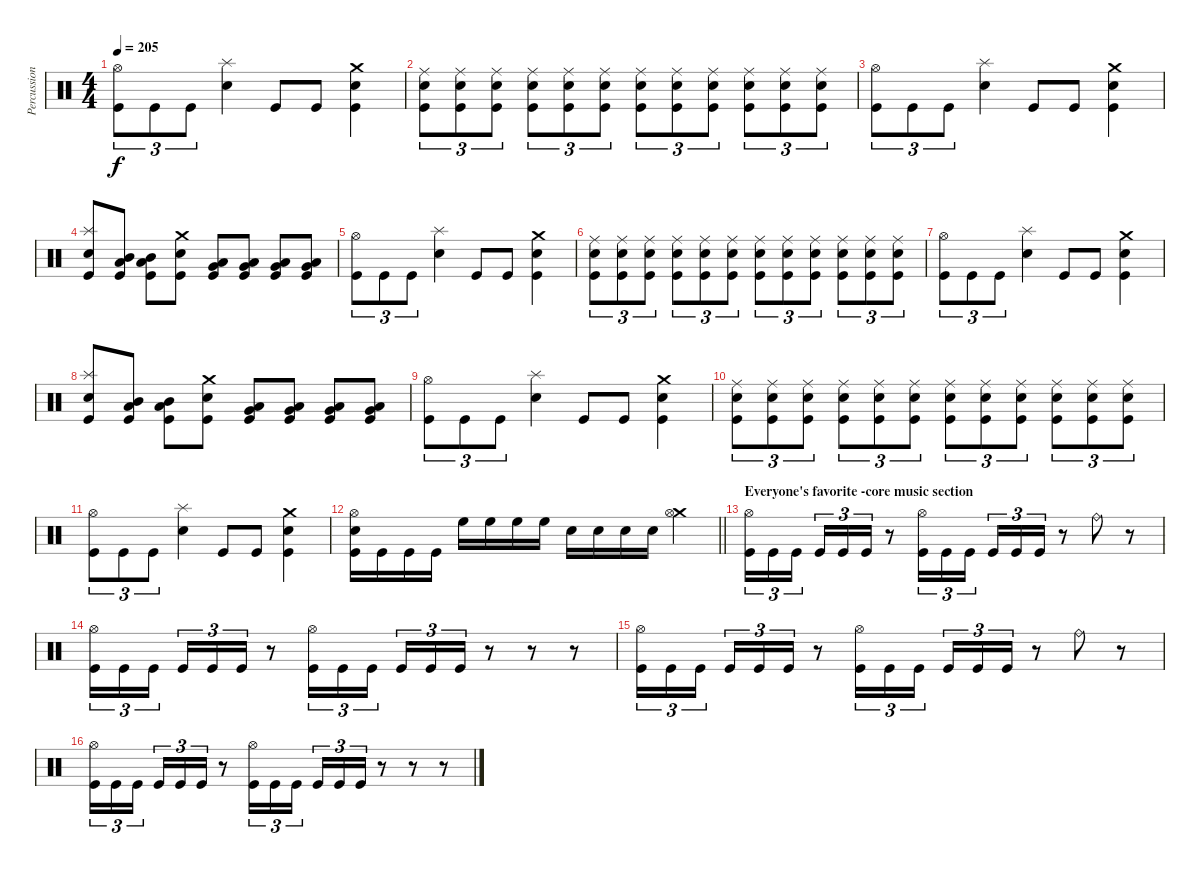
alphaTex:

\track ("Percussion" "Percussion") {instrument percussion}
\staff {score}
\articulation defaults
\ts (4 4)
\tempo 205
\clef neutral
\ks c
("Hi-Hat (open)" "Kick (hit)").8{tu (3 2) dy f} "Kick (hit)".8{tu (3 2)} "Kick (hit)".8{tu (3 2)} ("Splash (hit)" "Electric Snare (hit)").4 "Kick (hit)".8 "Kick (hit)".8 ("Crash medium (hit)" "Electric Snare (hit)" "Kick (hit)").4 |
("Ride (middle)" "Electric Snare (hit)" "Kick (hit)").8{tu (3 2)} ("Ride (middle)" "Electric Snare (hit)" "Kick (hit)").8{tu (3 2)} ("Ride (middle)" "Electric Snare (hit)" "Kick (hit)").8{tu (3 2)} ("Ride (middle)" "Electric Snare (hit)" "Kick (hit)").8{tu (3 2)} ("Ride (middle)" "Electric Snare (hit)" "Kick (hit)").8{tu (3 2)} ("Ride (middle)" "Electric Snare (hit)" "Kick (hit)").8{tu (3 2)} ("Ride (middle)" "Electric Snare (hit)" "Kick (hit)").8{tu (3 2)} ("Ride (middle)" "Electric Snare (hit)" "Kick (hit)").8{tu (3 2)} ("Ride (middle)" "Electric Snare (hit)" "Kick (hit)").8{tu (3 2)} ("Ride (middle)" "Electric Snare (hit)" "Kick (hit)").8{tu (3 2)} ("Ride (middle)" "Electric Snare (hit)" "Kick (hit)").8{tu (3 2)} ("Ride (middle)" "Electric Snare (hit)" "Kick (hit)").8{tu (3 2)} |
("Hi-Hat (open)" "Kick (hit)").8{tu (3 2)} "Kick (hit)".8{tu (3 2)} "Kick (hit)".8{tu (3 2)} ("Splash (hit)" "Electric Snare (hit)").4 "Kick (hit)".8 "Kick (hit)".8 ("Crash medium (hit)" "Electric Snare (hit)" "Kick (hit)").4 |
("Splash (hit)" "Electric Snare (hit)" "Kick (hit)").8 ("Low Tom (hit)" "Mid Tom (hit)" "Kick (hit)").8 ("Low Tom (hit)" "Mid Tom (hit)" "Kick (hit)").8 ("Crash medium (hit)" "Electric Snare (hit)" "Kick (hit)").8 ("Low Tom (hit)" "Very Low Tom (hit)" "Kick (hit)").8 ("Low Tom (hit)" "Very Low Tom (hit)" "Kick (hit)").8 ("Low Tom (hit)" "Very Low Tom (hit)" "Kick (hit)").8 ("Low Tom (hit)" "Very Low Tom (hit)" "Kick (hit)").8 |
("Hi-Hat (open)" "Kick (hit)").8{tu (3 2)} "Kick (hit)".8{tu (3 2)} "Kick (hit)".8{tu (3 2)} ("Splash (hit)" "Electric Snare (hit)").4 "Kick (hit)".8 "Kick (hit)".8 ("Crash medium (hit)" "Electric Snare (hit)" "Kick (hit)").4 |
("Ride (middle)" "Electric Snare (hit)" "Kick (hit)").8{tu (3 2)} ("Ride (middle)" "Electric Snare (hit)" "Kick (hit)").8{tu (3 2)} ("Ride (middle)" "Electric Snare (hit)" "Kick (hit)").8{tu (3 2)} ("Ride (middle)" "Electric Snare (hit)" "Kick (hit)").8{tu (3 2)} ("Ride (middle)" "Electric Snare (hit)" "Kick (hit)").8{tu (3 2)} ("Ride (middle)" "Electric Snare (hit)" "Kick (hit)").8{tu (3 2)} ("Ride (middle)" "Electric Snare (hit)" "Kick (hit)").8{tu (3 2)} ("Ride (middle)" "Electric Snare (hit)" "Kick (hit)").8{tu (3 2)} ("Ride (middle)" "Electric Snare (hit)" "Kick (hit)").8{tu (3 2)} ("Ride (middle)" "Electric Snare (hit)" "Kick (hit)").8{tu (3 2)} ("Ride (middle)" "Electric Snare (hit)" "Kick (hit)").8{tu (3 2)} ("Ride (middle)" "Electric Snare (hit)" "Kick (hit)").8{tu (3 2)} |
("Hi-Hat (open)" "Kick (hit)").8{tu (3 2)} "Kick (hit)".8{tu (3 2)} "Kick (hit)".8{tu (3 2)} ("Splash (hit)" "Electric Snare (hit)").4 "Kick (hit)".8 "Kick (hit)".8 ("Crash medium (hit)" "Electric Snare (hit)" "Kick (hit)").4 |
("Splash (hit)" "Electric Snare (hit)" "Kick (hit)").8 ("Low Tom (hit)" "Mid Tom (hit)" "Kick (hit)").8 ("Low Tom (hit)" "Mid Tom (hit)" "Kick (hit)").8 ("Crash medium (hit)" "Electric Snare (hit)" "Kick (hit)").8 ("Low Tom (hit)" "Very Low Tom (hit)" "Kick (hit)").8 ("Low Tom (hit)" "Very Low Tom (hit)" "Kick (hit)").8 ("Low Tom (hit)" "Very Low Tom (hit)" "Kick (hit)").8 ("Low Tom (hit)" "Very Low Tom (hit)" "Kick (hit)").8 |
("Hi-Hat (open)" "Kick (hit)").8{tu (3 2)} "Kick (hit)".8{tu (3 2)} "Kick (hit)".8{tu (3 2)} ("Splash (hit)" "Electric Snare (hit)").4 "Kick (hit)".8 "Kick (hit)".8 ("Crash medium (hit)" "Electric Snare (hit)" "Kick (hit)").4 |
("Ride (middle)" "Electric Snare (hit)" "Kick (hit)").8{tu (3 2)} ("Ride (middle)" "Electric Snare (hit)" "Kick (hit)").8{tu (3 2)} ("Ride (middle)" "Electric Snare (hit)" "Kick (hit)").8{tu (3 2)} ("Ride (middle)" "Electric Snare (hit)" "Kick (hit)").8{tu (3 2)} ("Ride (middle)" "Electric Snare (hit)" "Kick (hit)").8{tu (3 2)} ("Ride (middle)" "Electric Snare (hit)" "Kick (hit)").8{tu (3 2)} ("Ride (middle)" "Electric Snare (hit)" "Kick (hit)").8{tu (3 2)} ("Ride (middle)" "Electric Snare (hit)" "Kick (hit)").8{tu (3 2)} ("Ride (middle)" "Electric Snare (hit)" "Kick (hit)").8{tu (3 2)} ("Ride (middle)" "Electric Snare (hit)" "Kick (hit)").8{tu (3 2)} ("Ride (middle)" "Electric Snare (hit)" "Kick (hit)").8{tu (3 2)} ("Ride (middle)" "Electric Snare (hit)" "Kick (hit)").8{tu (3 2)} |
("Hi-Hat (open)" "Kick (hit)").8{tu (3 2)} "Kick (hit)".8{tu (3 2)} "Kick (hit)".8{tu (3 2)} ("Splash (hit)" "Electric Snare (hit)").4 "Kick (hit)".8 "Kick (hit)".8 ("Crash medium (hit)" "Electric Snare (hit)" "Kick (hit)").4 |
\barLineRight lightlight
("Hi-Hat (open)" "Electric Snare (hit)" "Kick (hit)").16 "Kick (hit)".16 "Kick (hit)".16 "Kick (hit)".16 "High Floor Tom (hit)".16 "High Floor Tom (hit)".16 "High Floor Tom (hit)".16 "High Floor Tom (hit)".16 "Electric Snare (hit)".16 "Electric Snare (hit)".16 "Electric Snare (hit)".16 "Electric Snare (hit)".16 ("Crash medium (hit)" "Hi-Hat (open)").4 |
\section ("" "Everyone's favorite -core music section")
("Hi-Hat (open)" "Kick (hit)").16{tu (3 2)} "Kick (hit)".16{tu (3 2)} "Kick (hit)".16{tu (3 2)} "Kick (hit)".16{tu (3 2)} "Kick (hit)".16{tu (3 2)} "Kick (hit)".16{tu (3 2)} r.8 ("Hi-Hat (open)" "Kick (hit)").16{tu (3 2)} "Kick (hit)".16{tu (3 2)} "Kick (hit)".16{tu (3 2)} "Kick (hit)".16{tu (3 2)} "Kick (hit)".16{tu (3 2)} "Kick (hit)".16{tu (3 2)} r.8 "Ride (bell)".8 r.8 |
("Hi-Hat (open)" "Kick (hit)").16{tu (3 2)} "Kick (hit)".16{tu (3 2)} "Kick (hit)".16{tu (3 2)} "Kick (hit)".16{tu (3 2)} "Kick (hit)".16{tu (3 2)} "Kick (hit)".16{tu (3 2)} r.8 ("Hi-Hat (open)" "Kick (hit)").16{tu (3 2)} "Kick (hit)".16{tu (3 2)} "Kick (hit)".16{tu (3 2)} "Kick (hit)".16{tu (3 2)} "Kick (hit)".16{tu (3 2)} "Kick (hit)".16{tu (3 2)} r.8 r.8 r.8 |
("Hi-Hat (open)" "Kick (hit)").16{tu (3 2)} "Kick (hit)".16{tu (3 2)} "Kick (hit)".16{tu (3 2)} "Kick (hit)".16{tu (3 2)} "Kick (hit)".16{tu (3 2)} "Kick (hit)".16{tu (3 2)} r.8 ("Hi-Hat (open)" "Kick (hit)").16{tu (3 2)} "Kick (hit)".16{tu (3 2)} "Kick (hit)".16{tu (3 2)} "Kick (hit)".16{tu (3 2)} "Kick (hit)".16{tu (3 2)} "Kick (hit)".16{tu (3 2)} r.8 "Ride (bell)".8 r.8 |
("Hi-Hat (open)" "Kick (hit)").16{tu (3 2)} "Kick (hit)".16{tu (3 2)} "Kick (hit)".16{tu (3 2)} "Kick (hit)".16{tu (3 2)} "Kick (hit)".16{tu (3 2)} "Kick (hit)".16{tu (3 2)} r.8 ("Hi-Hat (open)" "Kick (hit)").16{tu (3 2)} "Kick (hit)".16{tu (3 2)} "Kick (hit)".16{tu (3 2)} "Kick (hit)".16{tu (3 2)} "Kick (hit)".16{tu (3 2)} "Kick (hit)".16{tu (3 2)} r.8 r.8 r.8
